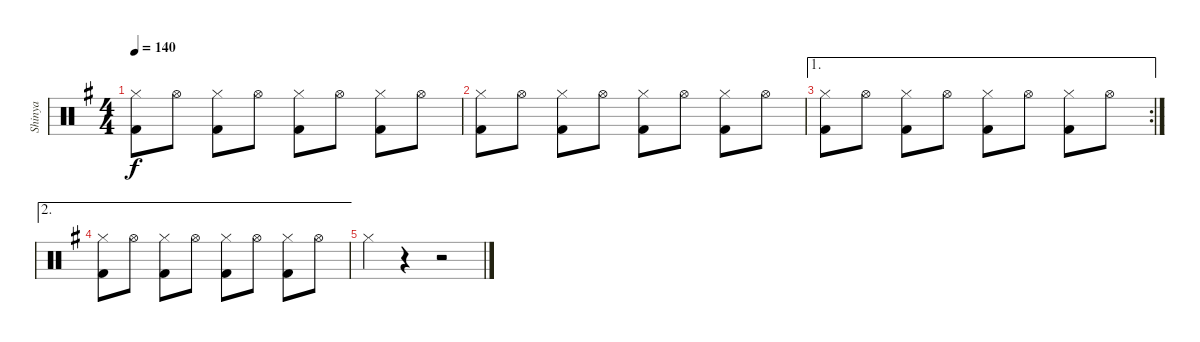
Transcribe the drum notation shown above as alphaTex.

\track ("Shinya" "Shinya") {instrument percussion}
\staff {score}
\articulation defaults
\ts (4 4)
\tempo 140
\clef neutral
\ks g
("Hi-Hat (closed)" "Kick (hit) 2").8{dy f} "Hi-Hat (open)".8 ("Hi-Hat (closed)" "Kick (hit) 2").8 "Hi-Hat (open)".8 ("Hi-Hat (closed)" "Kick (hit) 2").8 "Hi-Hat (open)".8 ("Hi-Hat (closed)" "Kick (hit) 2").8 "Hi-Hat (open)".8 |
("Hi-Hat (closed)" "Kick (hit) 2").8 "Hi-Hat (open)".8 ("Hi-Hat (closed)" "Kick (hit) 2").8 "Hi-Hat (open)".8 ("Hi-Hat (closed)" "Kick (hit) 2").8 "Hi-Hat (open)".8 ("Hi-Hat (closed)" "Kick (hit) 2").8 "Hi-Hat (open)".8 |
\ae 1
\rc 2
("Hi-Hat (closed)" "Kick (hit) 2").8 "Hi-Hat (open)".8 ("Hi-Hat (closed)" "Kick (hit) 2").8 "Hi-Hat (open)".8 ("Hi-Hat (closed)" "Kick (hit) 2").8 "Hi-Hat (open)".8 ("Hi-Hat (closed)" "Kick (hit) 2").8 "Hi-Hat (open)".8 |
\ae 2
("Hi-Hat (closed)" "Kick (hit) 2").8 "Hi-Hat (open)".8 ("Hi-Hat (closed)" "Kick (hit) 2").8 "Hi-Hat (open)".8 ("Hi-Hat (closed)" "Kick (hit) 2").8 "Hi-Hat (open)".8 ("Hi-Hat (closed)" "Kick (hit) 2").8 "Hi-Hat (open)".8 |
"Hi-Hat (closed)".4 r.4 r.2
